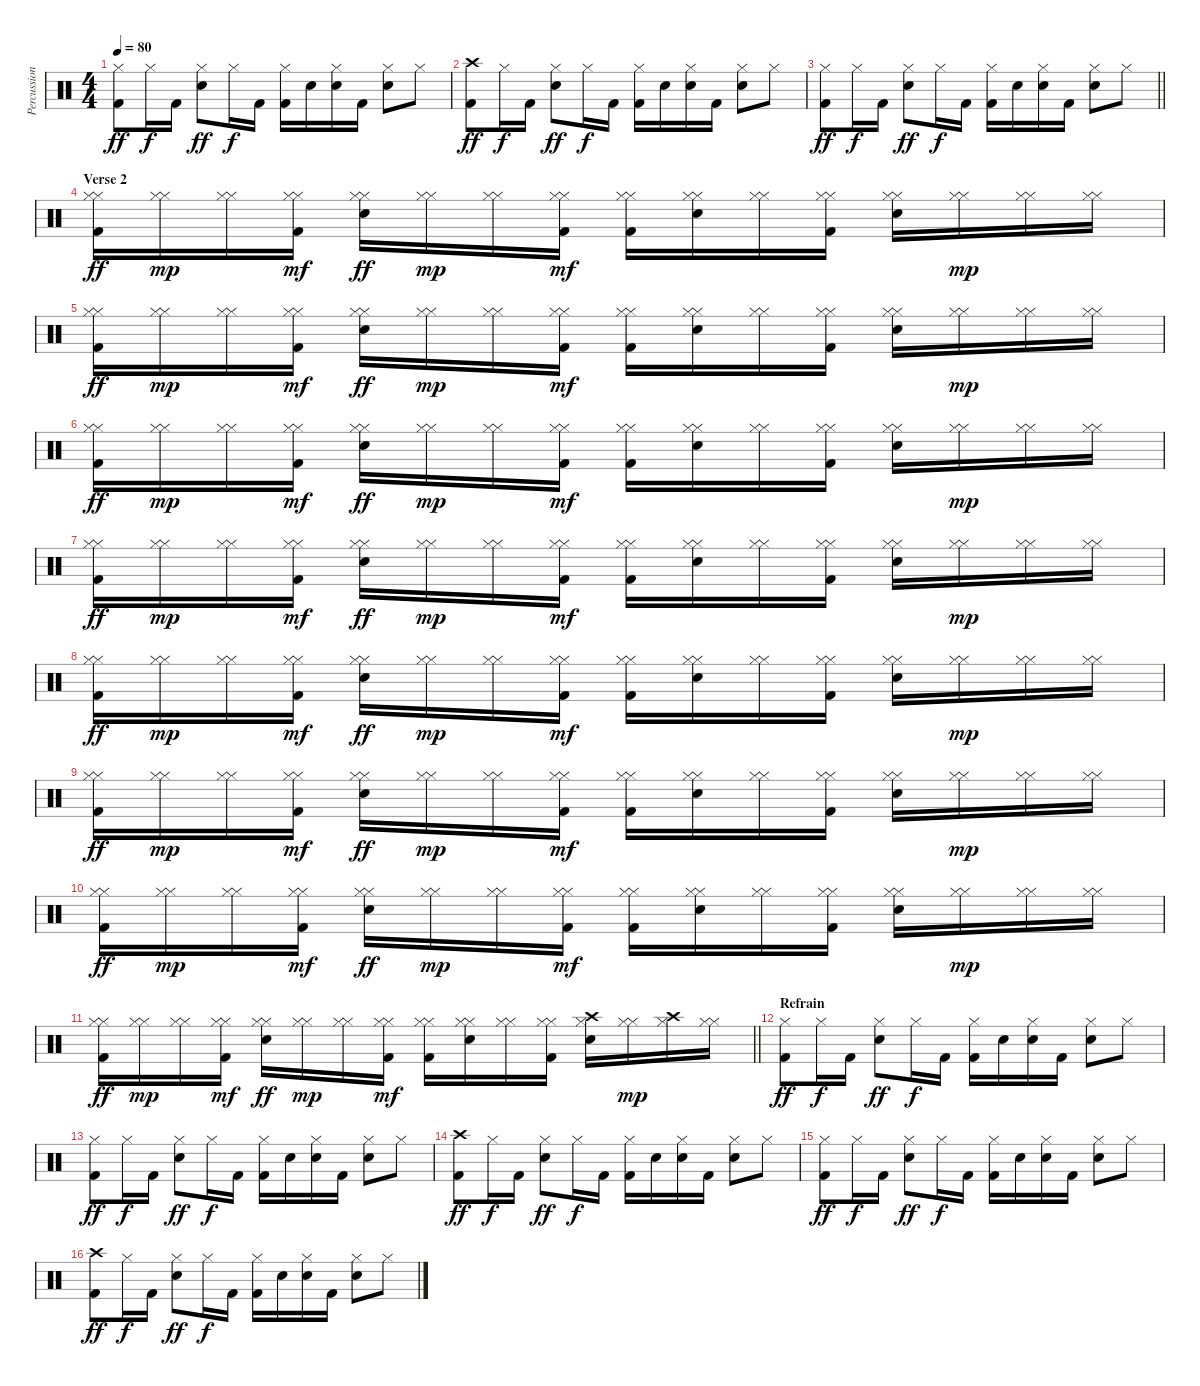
\track ("Percussion (Stieven)" "Percussion") {instrument percussion}
\staff {score}
\articulation defaults
\ts (4 4)
\tempo 80
\clef neutral
\ks c
("Hi-Hat (closed)" "Kick (hit) 2").8{dy ff} "Hi-Hat (closed)".16{dy f} "Kick (hit) 2".16 ("Hi-Hat (closed)" "Snare (hit) 2").8{dy ff} "Hi-Hat (closed)".16{dy f} "Kick (hit) 2".16 ("Hi-Hat (closed)" "Kick (hit) 2").16 "Snare (hit) 2".16 ("Hi-Hat (closed)" "Snare (hit) 2").16 "Kick (hit) 2".16 ("Hi-Hat (closed)" "Snare (hit) 2").8 "Hi-Hat (closed)".8 |
("Crash high (hit)" "Kick (hit) 2").8{dy ff} "Hi-Hat (closed)".16{dy f} "Kick (hit) 2".16 ("Hi-Hat (closed)" "Snare (hit) 2").8{dy ff} "Hi-Hat (closed)".16{dy f} "Kick (hit) 2".16 ("Hi-Hat (closed)" "Kick (hit) 2").16 "Snare (hit) 2".16 ("Hi-Hat (closed)" "Snare (hit) 2").16 "Kick (hit) 2".16 ("Hi-Hat (closed)" "Snare (hit) 2").8 "Hi-Hat (closed)".8 |
\barLineRight lightlight
("Hi-Hat (closed)" "Kick (hit) 2").8{dy ff} "Hi-Hat (closed)".16{dy f} "Kick (hit) 2".16 ("Hi-Hat (closed)" "Snare (hit) 2").8{dy ff} "Hi-Hat (closed)".16{dy f} "Kick (hit) 2".16 ("Hi-Hat (closed)" "Kick (hit) 2").16 "Snare (hit) 2".16 ("Hi-Hat (closed)" "Snare (hit) 2").16 "Kick (hit) 2".16 ("Hi-Hat (closed)" "Snare (hit) 2").8 "Hi-Hat (closed)".8 |
\section ("" "Verse 2")
("Hi-Hat (closed)" "Hi-Hat (closed)" "Kick (hit) 2").16{dy ff} ("Hi-Hat (closed)" "Hi-Hat (closed)").16{dy mp} ("Hi-Hat (closed)" "Hi-Hat (closed)").16 ("Hi-Hat (closed)" "Hi-Hat (closed)" "Kick (hit) 2").16{dy mf} ("Hi-Hat (closed)" "Hi-Hat (closed)" "Snare (hit) 2").16{dy ff} ("Hi-Hat (closed)" "Hi-Hat (closed)").16{dy mp} ("Hi-Hat (closed)" "Hi-Hat (closed)").16 ("Hi-Hat (closed)" "Hi-Hat (closed)" "Kick (hit) 2").16{dy mf} ("Hi-Hat (closed)" "Hi-Hat (closed)" "Kick (hit) 2").16 ("Hi-Hat (closed)" "Hi-Hat (closed)" "Snare (hit) 2").16 ("Hi-Hat (closed)" "Hi-Hat (closed)").16 ("Hi-Hat (closed)" "Hi-Hat (closed)" "Kick (hit) 2").16 ("Hi-Hat (closed)" "Hi-Hat (closed)" "Snare (hit) 2").16 ("Hi-Hat (closed)" "Hi-Hat (closed)").16{dy mp} ("Hi-Hat (closed)" "Hi-Hat (closed)").16 ("Hi-Hat (closed)" "Hi-Hat (closed)").16 |
("Hi-Hat (closed)" "Hi-Hat (closed)" "Kick (hit) 2").16{dy ff} ("Hi-Hat (closed)" "Hi-Hat (closed)").16{dy mp} ("Hi-Hat (closed)" "Hi-Hat (closed)").16 ("Hi-Hat (closed)" "Hi-Hat (closed)" "Kick (hit) 2").16{dy mf} ("Hi-Hat (closed)" "Hi-Hat (closed)" "Snare (hit) 2").16{dy ff} ("Hi-Hat (closed)" "Hi-Hat (closed)").16{dy mp} ("Hi-Hat (closed)" "Hi-Hat (closed)").16 ("Hi-Hat (closed)" "Hi-Hat (closed)" "Kick (hit) 2").16{dy mf} ("Hi-Hat (closed)" "Hi-Hat (closed)" "Kick (hit) 2").16 ("Hi-Hat (closed)" "Hi-Hat (closed)" "Snare (hit) 2").16 ("Hi-Hat (closed)" "Hi-Hat (closed)").16 ("Hi-Hat (closed)" "Hi-Hat (closed)" "Kick (hit) 2").16 ("Hi-Hat (closed)" "Hi-Hat (closed)" "Snare (hit) 2").16 ("Hi-Hat (closed)" "Hi-Hat (closed)").16{dy mp} ("Hi-Hat (closed)" "Hi-Hat (closed)").16 ("Hi-Hat (closed)" "Hi-Hat (closed)").16 |
("Hi-Hat (closed)" "Hi-Hat (closed)" "Kick (hit) 2").16{dy ff} ("Hi-Hat (closed)" "Hi-Hat (closed)").16{dy mp} ("Hi-Hat (closed)" "Hi-Hat (closed)").16 ("Hi-Hat (closed)" "Hi-Hat (closed)" "Kick (hit) 2").16{dy mf} ("Hi-Hat (closed)" "Hi-Hat (closed)" "Snare (hit) 2").16{dy ff} ("Hi-Hat (closed)" "Hi-Hat (closed)").16{dy mp} ("Hi-Hat (closed)" "Hi-Hat (closed)").16 ("Hi-Hat (closed)" "Hi-Hat (closed)" "Kick (hit) 2").16{dy mf} ("Hi-Hat (closed)" "Hi-Hat (closed)" "Kick (hit) 2").16 ("Hi-Hat (closed)" "Hi-Hat (closed)" "Snare (hit) 2").16 ("Hi-Hat (closed)" "Hi-Hat (closed)").16 ("Hi-Hat (closed)" "Hi-Hat (closed)" "Kick (hit) 2").16 ("Hi-Hat (closed)" "Hi-Hat (closed)" "Snare (hit) 2").16 ("Hi-Hat (closed)" "Hi-Hat (closed)").16{dy mp} ("Hi-Hat (closed)" "Hi-Hat (closed)").16 ("Hi-Hat (closed)" "Hi-Hat (closed)").16 |
("Hi-Hat (closed)" "Hi-Hat (closed)" "Kick (hit) 2").16{dy ff} ("Hi-Hat (closed)" "Hi-Hat (closed)").16{dy mp} ("Hi-Hat (closed)" "Hi-Hat (closed)").16 ("Hi-Hat (closed)" "Hi-Hat (closed)" "Kick (hit) 2").16{dy mf} ("Hi-Hat (closed)" "Hi-Hat (closed)" "Snare (hit) 2").16{dy ff} ("Hi-Hat (closed)" "Hi-Hat (closed)").16{dy mp} ("Hi-Hat (closed)" "Hi-Hat (closed)").16 ("Hi-Hat (closed)" "Hi-Hat (closed)" "Kick (hit) 2").16{dy mf} ("Hi-Hat (closed)" "Hi-Hat (closed)" "Kick (hit) 2").16 ("Hi-Hat (closed)" "Hi-Hat (closed)" "Snare (hit) 2").16 ("Hi-Hat (closed)" "Hi-Hat (closed)").16 ("Hi-Hat (closed)" "Hi-Hat (closed)" "Kick (hit) 2").16 ("Hi-Hat (closed)" "Hi-Hat (closed)" "Snare (hit) 2").16 ("Hi-Hat (closed)" "Hi-Hat (closed)").16{dy mp} ("Hi-Hat (closed)" "Hi-Hat (closed)").16 ("Hi-Hat (closed)" "Hi-Hat (closed)").16 |
("Hi-Hat (closed)" "Hi-Hat (closed)" "Kick (hit) 2").16{dy ff} ("Hi-Hat (closed)" "Hi-Hat (closed)").16{dy mp} ("Hi-Hat (closed)" "Hi-Hat (closed)").16 ("Hi-Hat (closed)" "Hi-Hat (closed)" "Kick (hit) 2").16{dy mf} ("Hi-Hat (closed)" "Hi-Hat (closed)" "Snare (hit) 2").16{dy ff} ("Hi-Hat (closed)" "Hi-Hat (closed)").16{dy mp} ("Hi-Hat (closed)" "Hi-Hat (closed)").16 ("Hi-Hat (closed)" "Hi-Hat (closed)" "Kick (hit) 2").16{dy mf} ("Hi-Hat (closed)" "Hi-Hat (closed)" "Kick (hit) 2").16 ("Hi-Hat (closed)" "Hi-Hat (closed)" "Snare (hit) 2").16 ("Hi-Hat (closed)" "Hi-Hat (closed)").16 ("Hi-Hat (closed)" "Hi-Hat (closed)" "Kick (hit) 2").16 ("Hi-Hat (closed)" "Hi-Hat (closed)" "Snare (hit) 2").16 ("Hi-Hat (closed)" "Hi-Hat (closed)").16{dy mp} ("Hi-Hat (closed)" "Hi-Hat (closed)").16 ("Hi-Hat (closed)" "Hi-Hat (closed)").16 |
("Hi-Hat (closed)" "Hi-Hat (closed)" "Kick (hit) 2").16{dy ff} ("Hi-Hat (closed)" "Hi-Hat (closed)").16{dy mp} ("Hi-Hat (closed)" "Hi-Hat (closed)").16 ("Hi-Hat (closed)" "Hi-Hat (closed)" "Kick (hit) 2").16{dy mf} ("Hi-Hat (closed)" "Hi-Hat (closed)" "Snare (hit) 2").16{dy ff} ("Hi-Hat (closed)" "Hi-Hat (closed)").16{dy mp} ("Hi-Hat (closed)" "Hi-Hat (closed)").16 ("Hi-Hat (closed)" "Hi-Hat (closed)" "Kick (hit) 2").16{dy mf} ("Hi-Hat (closed)" "Hi-Hat (closed)" "Kick (hit) 2").16 ("Hi-Hat (closed)" "Hi-Hat (closed)" "Snare (hit) 2").16 ("Hi-Hat (closed)" "Hi-Hat (closed)").16 ("Hi-Hat (closed)" "Hi-Hat (closed)" "Kick (hit) 2").16 ("Hi-Hat (closed)" "Hi-Hat (closed)" "Snare (hit) 2").16 ("Hi-Hat (closed)" "Hi-Hat (closed)").16{dy mp} ("Hi-Hat (closed)" "Hi-Hat (closed)").16 ("Hi-Hat (closed)" "Hi-Hat (closed)").16 |
("Hi-Hat (closed)" "Hi-Hat (closed)" "Kick (hit) 2").16{dy ff} ("Hi-Hat (closed)" "Hi-Hat (closed)").16{dy mp} ("Hi-Hat (closed)" "Hi-Hat (closed)").16 ("Hi-Hat (closed)" "Hi-Hat (closed)" "Kick (hit) 2").16{dy mf} ("Hi-Hat (closed)" "Hi-Hat (closed)" "Snare (hit) 2").16{dy ff} ("Hi-Hat (closed)" "Hi-Hat (closed)").16{dy mp} ("Hi-Hat (closed)" "Hi-Hat (closed)").16 ("Hi-Hat (closed)" "Hi-Hat (closed)" "Kick (hit) 2").16{dy mf} ("Hi-Hat (closed)" "Hi-Hat (closed)" "Kick (hit) 2").16 ("Hi-Hat (closed)" "Hi-Hat (closed)" "Snare (hit) 2").16 ("Hi-Hat (closed)" "Hi-Hat (closed)").16 ("Hi-Hat (closed)" "Hi-Hat (closed)" "Kick (hit) 2").16 ("Hi-Hat (closed)" "Hi-Hat (closed)" "Snare (hit) 2").16 ("Hi-Hat (closed)" "Hi-Hat (closed)").16{dy mp} ("Hi-Hat (closed)" "Hi-Hat (closed)").16 ("Hi-Hat (closed)" "Hi-Hat (closed)").16 |
\barLineRight lightlight
("Hi-Hat (closed)" "Hi-Hat (closed)" "Kick (hit) 2").16{dy ff} ("Hi-Hat (closed)" "Hi-Hat (closed)").16{dy mp} ("Hi-Hat (closed)" "Hi-Hat (closed)").16 ("Hi-Hat (closed)" "Hi-Hat (closed)" "Kick (hit) 2").16{dy mf} ("Hi-Hat (closed)" "Hi-Hat (closed)" "Snare (hit) 2").16{dy ff} ("Hi-Hat (closed)" "Hi-Hat (closed)").16{dy mp} ("Hi-Hat (closed)" "Hi-Hat (closed)").16 ("Hi-Hat (closed)" "Hi-Hat (closed)" "Kick (hit) 2").16{dy mf} ("Hi-Hat (closed)" "Hi-Hat (closed)" "Kick (hit) 2").16 ("Hi-Hat (closed)" "Hi-Hat (closed)" "Snare (hit) 2").16 ("Hi-Hat (closed)" "Hi-Hat (closed)").16 ("Hi-Hat (closed)" "Hi-Hat (closed)" "Kick (hit) 2").16 ("Crash high (hit)" "Hi-Hat (closed)" "Snare (hit) 2").16 ("Hi-Hat (closed)" "Hi-Hat (closed)").16{dy mp} ("Crash high (hit)" "Hi-Hat (closed)").16 ("Hi-Hat (closed)" "Hi-Hat (closed)").16 |
\section ("" "Refrain")
("Hi-Hat (closed)" "Kick (hit) 2").8{dy ff} "Hi-Hat (closed)".16{dy f} "Kick (hit) 2".16 ("Hi-Hat (closed)" "Snare (hit) 2").8{dy ff} "Hi-Hat (closed)".16{dy f} "Kick (hit) 2".16 ("Hi-Hat (closed)" "Kick (hit) 2").16 "Snare (hit) 2".16 ("Hi-Hat (closed)" "Snare (hit) 2").16 "Kick (hit) 2".16 ("Hi-Hat (closed)" "Snare (hit) 2").8 "Hi-Hat (closed)".8 |
("Hi-Hat (closed)" "Kick (hit) 2").8{dy ff} "Hi-Hat (closed)".16{dy f} "Kick (hit) 2".16 ("Hi-Hat (closed)" "Snare (hit) 2").8{dy ff} "Hi-Hat (closed)".16{dy f} "Kick (hit) 2".16 ("Hi-Hat (closed)" "Kick (hit) 2").16 "Snare (hit) 2".16 ("Hi-Hat (closed)" "Snare (hit) 2").16 "Kick (hit) 2".16 ("Hi-Hat (closed)" "Snare (hit) 2").8 "Hi-Hat (closed)".8 |
("Crash high (hit)" "Kick (hit) 2").8{dy ff} "Hi-Hat (closed)".16{dy f} "Kick (hit) 2".16 ("Hi-Hat (closed)" "Snare (hit) 2").8{dy ff} "Hi-Hat (closed)".16{dy f} "Kick (hit) 2".16 ("Hi-Hat (closed)" "Kick (hit) 2").16 "Snare (hit) 2".16 ("Hi-Hat (closed)" "Snare (hit) 2").16 "Kick (hit) 2".16 ("Hi-Hat (closed)" "Snare (hit) 2").8 "Hi-Hat (closed)".8 |
("Hi-Hat (closed)" "Kick (hit) 2").8{dy ff} "Hi-Hat (closed)".16{dy f} "Kick (hit) 2".16 ("Hi-Hat (closed)" "Snare (hit) 2").8{dy ff} "Hi-Hat (closed)".16{dy f} "Kick (hit) 2".16 ("Hi-Hat (closed)" "Kick (hit) 2").16 "Snare (hit) 2".16 ("Hi-Hat (closed)" "Snare (hit) 2").16 "Kick (hit) 2".16 ("Hi-Hat (closed)" "Snare (hit) 2").8 "Hi-Hat (closed)".8 |
("Crash high (hit)" "Kick (hit) 2").8{dy ff} "Hi-Hat (closed)".16{dy f} "Kick (hit) 2".16 ("Hi-Hat (closed)" "Snare (hit) 2").8{dy ff} "Hi-Hat (closed)".16{dy f} "Kick (hit) 2".16 ("Hi-Hat (closed)" "Kick (hit) 2").16 "Snare (hit) 2".16 ("Hi-Hat (closed)" "Snare (hit) 2").16 "Kick (hit) 2".16 ("Hi-Hat (closed)" "Snare (hit) 2").8 "Hi-Hat (closed)".8
